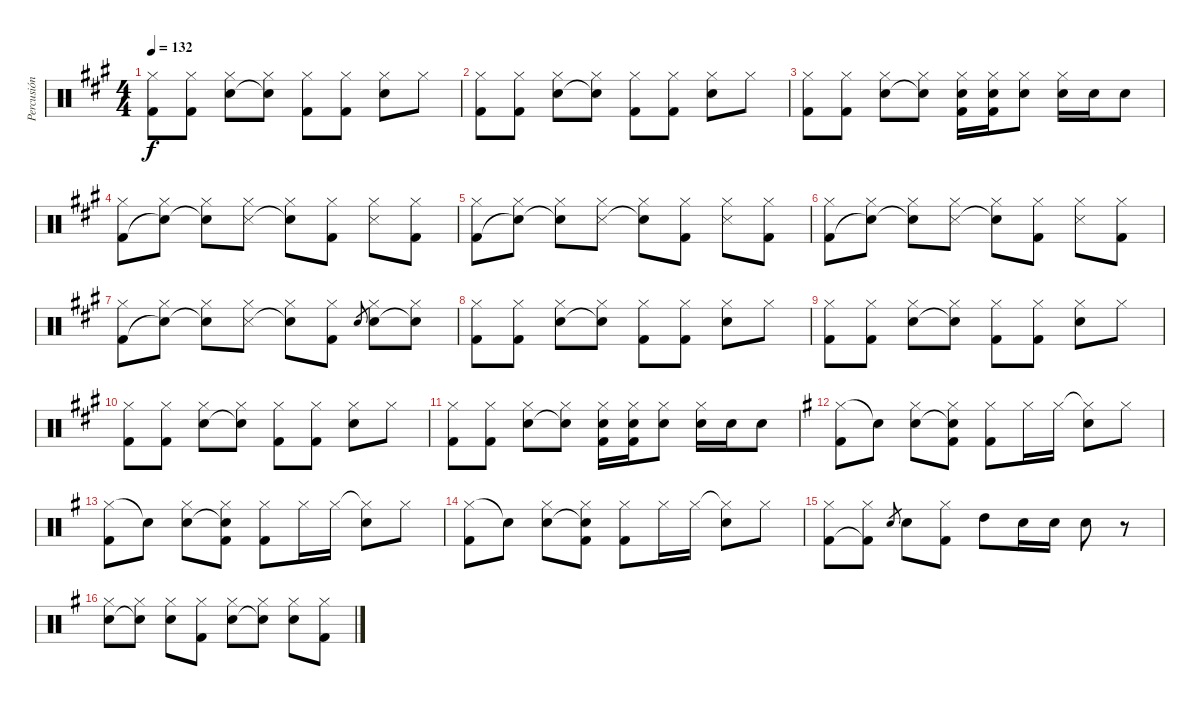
\track ("Percusión" "Percusión") {instrument percussion}
\staff {score}
\articulation defaults
\ts (4 4)
\tempo 132
\clef neutral
\ks f#minor
("Hi-Hat (closed)" "Kick (hit) 2").8{dy f} ("Hi-Hat (closed)" "Kick (hit) 2").8 ("Hi-Hat (closed)" "Electric Snare (hit)").8 ("Hi-Hat (closed)" "Snare (hit)"{t}).8 ("Hi-Hat (closed)" "Kick (hit) 2").8 ("Hi-Hat (closed)" "Kick (hit) 2").8 ("Hi-Hat (closed)" "Electric Snare (hit)").8 "Hi-Hat (closed)".8 |
("Hi-Hat (closed)" "Kick (hit) 2").8 ("Hi-Hat (closed)" "Kick (hit) 2").8 ("Hi-Hat (closed)" "Electric Snare (hit)").8 ("Hi-Hat (closed)" "Snare (hit)"{t}).8 ("Hi-Hat (closed)" "Kick (hit) 2").8 ("Hi-Hat (closed)" "Kick (hit) 2").8 ("Hi-Hat (closed)" "Electric Snare (hit)").8 "Hi-Hat (closed)".8 |
("Hi-Hat (closed)" "Kick (hit) 2").8 ("Hi-Hat (closed)" "Kick (hit) 2").8 ("Hi-Hat (closed)" "Electric Snare (hit)").8 ("Hi-Hat (closed)" "Snare (hit)"{t}).8 ("Hi-Hat (closed)" "Electric Snare (hit)" "Kick (hit) 2").16 ("Hi-Hat (closed)" "Electric Snare (hit)" "Kick (hit) 2").16 ("Hi-Hat (closed)" "Electric Snare (hit)").8 ("Hi-Hat (closed)" "Electric Snare (hit)").16 "Electric Snare (hit)".16 "Electric Snare (hit)".8 |
("Hi-Hat (closed)" "Kick (hit) 2").8 ("Hi-Hat (closed)" "Snare (hit)"{t}).8 ("Hi-Hat (closed)" "Snare (hit)"{t}).8 ("Hi-Hat (closed)" "Snare (side stick) 3").8 ("Hi-Hat (closed)" "Snare (hit)"{t}).8 ("Hi-Hat (closed)" "Kick (hit) 2").8 ("Hi-Hat (closed)" "Snare (side stick) 3").8 ("Hi-Hat (closed)" "Kick (hit) 2").8 |
("Hi-Hat (closed)" "Kick (hit) 2").8 ("Hi-Hat (closed)" "Snare (hit)"{t}).8 ("Hi-Hat (closed)" "Snare (hit)"{t}).8 ("Hi-Hat (closed)" "Snare (side stick) 3").8 ("Hi-Hat (closed)" "Snare (hit)"{t}).8 ("Hi-Hat (closed)" "Kick (hit) 2").8 ("Hi-Hat (closed)" "Snare (side stick) 3").8 ("Hi-Hat (closed)" "Kick (hit) 2").8 |
("Hi-Hat (closed)" "Kick (hit) 2").8 ("Hi-Hat (closed)" "Snare (hit)"{t}).8 ("Hi-Hat (closed)" "Snare (hit)"{t}).8 ("Hi-Hat (closed)" "Snare (side stick) 3").8 ("Hi-Hat (closed)" "Snare (hit)"{t}).8 ("Hi-Hat (closed)" "Kick (hit) 2").8 ("Hi-Hat (closed)" "Snare (side stick) 3").8 ("Hi-Hat (closed)" "Kick (hit) 2").8 |
("Hi-Hat (closed)" "Kick (hit) 2").8 ("Hi-Hat (closed)" "Snare (hit)"{t}).8 ("Hi-Hat (closed)" "Snare (hit)"{t}).8 ("Hi-Hat (closed)" "Snare (side stick) 3").8 ("Hi-Hat (closed)" "Snare (hit)"{t}).8 ("Hi-Hat (closed)" "Kick (hit) 2").8 "Snare (hit) 2".8{gr} ("Hi-Hat (closed)" "Snare (hit) 2").8 ("Hi-Hat (closed)" "Snare (hit)"{t}).8 |
("Hi-Hat (closed)" "Kick (hit) 2").8 ("Hi-Hat (closed)" "Kick (hit) 2").8 ("Hi-Hat (closed)" "Electric Snare (hit)").8 ("Hi-Hat (closed)" "Snare (hit)"{t}).8 ("Hi-Hat (closed)" "Kick (hit) 2").8 ("Hi-Hat (closed)" "Kick (hit) 2").8 ("Hi-Hat (closed)" "Electric Snare (hit)").8 "Hi-Hat (closed)".8 |
("Hi-Hat (closed)" "Kick (hit) 2").8 ("Hi-Hat (closed)" "Kick (hit) 2").8 ("Hi-Hat (closed)" "Electric Snare (hit)").8 ("Hi-Hat (closed)" "Snare (hit)"{t}).8 ("Hi-Hat (closed)" "Kick (hit) 2").8 ("Hi-Hat (closed)" "Kick (hit) 2").8 ("Hi-Hat (closed)" "Electric Snare (hit)").8 "Hi-Hat (closed)".8 |
("Hi-Hat (closed)" "Kick (hit) 2").8 ("Hi-Hat (closed)" "Kick (hit) 2").8 ("Hi-Hat (closed)" "Electric Snare (hit)").8 ("Hi-Hat (closed)" "Snare (hit)"{t}).8 ("Hi-Hat (closed)" "Kick (hit) 2").8 ("Hi-Hat (closed)" "Kick (hit) 2").8 ("Hi-Hat (closed)" "Electric Snare (hit)").8 "Hi-Hat (closed)".8 |
("Hi-Hat (closed)" "Kick (hit) 2").8 ("Hi-Hat (closed)" "Kick (hit) 2").8 ("Hi-Hat (closed)" "Electric Snare (hit)").8 ("Hi-Hat (closed)" "Snare (hit)"{t}).8 ("Hi-Hat (closed)" "Electric Snare (hit)" "Kick (hit) 2").16 ("Hi-Hat (closed)" "Electric Snare (hit)" "Kick (hit) 2").16 ("Hi-Hat (closed)" "Electric Snare (hit)").8 ("Hi-Hat (closed)" "Electric Snare (hit)").16 "Electric Snare (hit)".16 "Electric Snare (hit)".8 |
\ks eminor
("Hi-Hat (closed)" "Kick (hit) 2").8 "Snare (hit)"{t}.8 ("Hi-Hat (closed)" "Electric Snare (hit)").8 ("Hi-Hat (closed)" "Snare (hit)"{t} "Kick (hit) 2").8 ("Hi-Hat (closed)" "Kick (hit) 2").8 "Hi-Hat (closed)".16 "Hi-Hat (closed)".16 ("Hi-Hat (closed)"{t} "Electric Snare (hit)").8 "Hi-Hat (closed)".8 |
("Hi-Hat (closed)" "Kick (hit) 2").8 "Snare (hit)"{t}.8 ("Hi-Hat (closed)" "Electric Snare (hit)").8 ("Hi-Hat (closed)" "Snare (hit)"{t} "Kick (hit) 2").8 ("Hi-Hat (closed)" "Kick (hit) 2").8 "Hi-Hat (closed)".16 "Hi-Hat (closed)".16 ("Hi-Hat (closed)"{t} "Electric Snare (hit)").8 "Hi-Hat (closed)".8 |
("Hi-Hat (closed)" "Kick (hit) 2").8 "Snare (hit)"{t}.8 ("Hi-Hat (closed)" "Electric Snare (hit)").8 ("Hi-Hat (closed)" "Snare (hit)"{t} "Kick (hit) 2").8 ("Hi-Hat (closed)" "Kick (hit) 2").8 "Hi-Hat (closed)".16 "Hi-Hat (closed)".16 ("Hi-Hat (closed)"{t} "Electric Snare (hit)").8 "Hi-Hat (closed)".8 |
("Hi-Hat (closed)" "Kick (hit) 2").8 ("Hi-Hat (closed)" "Kick (hit) 2"{t}).8 "Electric Snare (hit)".8{gr} "Electric Snare (hit)".8 ("Hi-Hat (closed)" "Kick (hit) 2").8 "High Tom (hit)".8 "Electric Snare (hit)".16 "Electric Snare (hit)".16 "Electric Snare (hit)".8 r.8 |
("Hi-Hat (closed)" "Electric Snare (hit)").8 ("Hi-Hat (closed)" "Snare (hit)"{t}).8 ("Hi-Hat (closed)" "Electric Snare (hit)").8 ("Hi-Hat (closed)" "Kick (hit) 2").8 ("Hi-Hat (closed)" "Electric Snare (hit)").8 ("Hi-Hat (closed)" "Snare (hit)"{t}).8 ("Hi-Hat (closed)" "Electric Snare (hit)").8 ("Hi-Hat (closed)" "Kick (hit) 2").8
